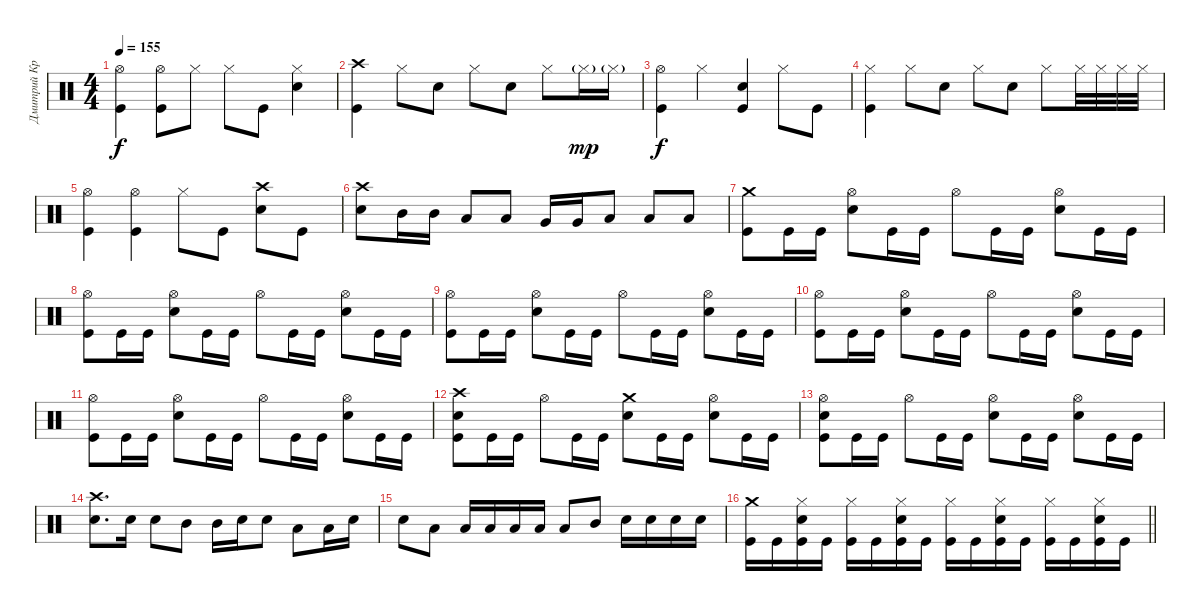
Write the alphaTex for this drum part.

\track ("Дмитрий Кривенков" "Дмитрий Кр") {instrument percussion}
\staff {score}
\articulation defaults
\ts (4 4)
\tempo 155
\clef neutral
\ks c
("Hi-Hat (open)" "Kick (hit)").4{dy f} ("Hi-Hat (open)" "Kick (hit)").8 "Hi-Hat (closed)".8 "Hi-Hat (closed)".8 "Kick (hit)".8 ("Hi-Hat (closed)" "Snare (hit) 2").4 |
("Crash high (hit)" "Kick (hit)").4 "Hi-Hat (closed)".8 "Snare (hit) 2".8 "Hi-Hat (closed)".8 "Snare (hit) 2".8 "Hi-Hat (closed)".8 "Hi-Hat (closed)"{g}.16{dy mp} "Hi-Hat (closed)"{g}.16 |
("Hi-Hat (open)" "Kick (hit)").4{dy f} "Hi-Hat (closed)".4 ("Snare (hit) 2" "Kick (hit)").4 "Hi-Hat (closed)".8 "Kick (hit)".8 |
("Hi-Hat (closed)" "Kick (hit)").4 "Hi-Hat (closed)".8 "Snare (hit) 2".8 "Hi-Hat (closed)".8 "Snare (hit) 2".8 "Hi-Hat (closed)".8 "Hi-Hat (closed)".32 "Hi-Hat (closed)".32 "Hi-Hat (closed)".32 "Hi-Hat (closed)".32 |
("Hi-Hat (open)" "Kick (hit)").4 ("Hi-Hat (open)" "Kick (hit)").4 "Hi-Hat (closed)".8 "Kick (hit)".8 ("Crash high (hit)" "Snare (hit) 2").8 "Kick (hit)".8 |
("Crash high (hit)" "Snare (hit) 2").8 "Mid Tom (hit)".16 "Mid Tom (hit)".16 "Low Tom (hit)".8 "Low Tom (hit)".8 "Very Low Tom (hit)".16 "Very Low Tom (hit)".16 "Low Floor Tom (hit)".8 "Low Floor Tom (hit)".8 "Low Floor Tom (hit)".8 |
("Crash medium (hit)" "Kick (hit)").8 "Kick (hit)".16 "Kick (hit)".16 ("Hi-Hat (open)" "Snare (hit) 2").8 "Kick (hit)".16 "Kick (hit)".16 "Hi-Hat (open)".8 "Kick (hit)".16 "Kick (hit)".16 ("Hi-Hat (open)" "Snare (hit) 2").8 "Kick (hit)".16 "Kick (hit)".16 |
("Hi-Hat (open)" "Kick (hit)").8 "Kick (hit)".16 "Kick (hit)".16 ("Hi-Hat (open)" "Snare (hit) 2").8 "Kick (hit)".16 "Kick (hit)".16 "Hi-Hat (open)".8 "Kick (hit)".16 "Kick (hit)".16 ("Hi-Hat (open)" "Snare (hit) 2").8 "Kick (hit)".16 "Kick (hit)".16 |
("Hi-Hat (open)" "Kick (hit)").8 "Kick (hit)".16 "Kick (hit)".16 ("Hi-Hat (open)" "Snare (hit) 2").8 "Kick (hit)".16 "Kick (hit)".16 "Hi-Hat (open)".8 "Kick (hit)".16 "Kick (hit)".16 ("Hi-Hat (open)" "Snare (hit) 2").8 "Kick (hit)".16 "Kick (hit)".16 |
("Hi-Hat (open)" "Kick (hit)").8 "Kick (hit)".16 "Kick (hit)".16 ("Hi-Hat (open)" "Snare (hit) 2").8 "Kick (hit)".16 "Kick (hit)".16 "Hi-Hat (open)".8 "Kick (hit)".16 "Kick (hit)".16 ("Hi-Hat (open)" "Snare (hit) 2").8 "Kick (hit)".16 "Kick (hit)".16 |
("Hi-Hat (open)" "Kick (hit)").8 "Kick (hit)".16 "Kick (hit)".16 ("Hi-Hat (open)" "Snare (hit) 2").8 "Kick (hit)".16 "Kick (hit)".16 "Hi-Hat (open)".8 "Kick (hit)".16 "Kick (hit)".16 ("Hi-Hat (open)" "Snare (hit) 2").8 "Kick (hit)".16 "Kick (hit)".16 |
("Crash high (hit)" "Snare (hit) 2" "Kick (hit)").8 "Kick (hit)".16 "Kick (hit)".16 "Hi-Hat (open)".8 "Kick (hit)".16 "Kick (hit)".16 ("Crash medium (hit)" "Snare (hit) 2").8 "Kick (hit)".16 "Kick (hit)".16 ("Hi-Hat (open)" "Snare (hit) 2").8 "Kick (hit)".16 "Kick (hit)".16 |
("Hi-Hat (open)" "Snare (hit) 2" "Kick (hit)").8 "Kick (hit)".16 "Kick (hit)".16 "Hi-Hat (open)".8 "Kick (hit)".16 "Kick (hit)".16 ("Hi-Hat (open)" "Snare (hit) 2").8 "Kick (hit)".16 "Kick (hit)".16 ("Hi-Hat (open)" "Snare (hit) 2").8 "Kick (hit)".16 "Kick (hit)".16 |
("Crash high (hit)" "Snare (hit) 2").8{d} "Snare (hit) 2".16 "Snare (hit) 2".8 "Mid Tom (hit)".8 "Mid Tom (hit)".16 "Snare (hit) 2".16 "Snare (hit) 2".8 "Low Tom (hit)".8 "Low Tom (hit)".16 "Snare (hit) 2".16 |
"Snare (hit) 2".8 "Low Tom (hit)".8 "Low Tom (hit)".16 "Low Tom (hit)".16 "Low Tom (hit)".16 "Low Tom (hit)".16 "Low Tom (hit)".8 "Mid Tom (hit)".8 "Snare (hit) 2".16 "Snare (hit) 2".16 "Snare (hit) 2".16 "Snare (hit) 2".16 |
\barLineRight lightlight
("Crash medium (hit)" "Kick (hit)").16 "Kick (hit)".16 ("Hi-Hat (closed)" "Snare (hit) 2" "Kick (hit)").16 "Kick (hit)".16 ("Hi-Hat (closed)" "Kick (hit)").16 "Kick (hit)".16 ("Hi-Hat (closed)" "Snare (hit) 2" "Kick (hit)").16 "Kick (hit)".16 ("Hi-Hat (closed)" "Kick (hit)").16 "Kick (hit)".16 ("Hi-Hat (closed)" "Snare (hit) 2" "Kick (hit)").16 "Kick (hit)".16 ("Hi-Hat (closed)" "Kick (hit)").16 "Kick (hit)".16 ("Hi-Hat (closed)" "Snare (hit) 2" "Kick (hit)").16 "Kick (hit)".16
